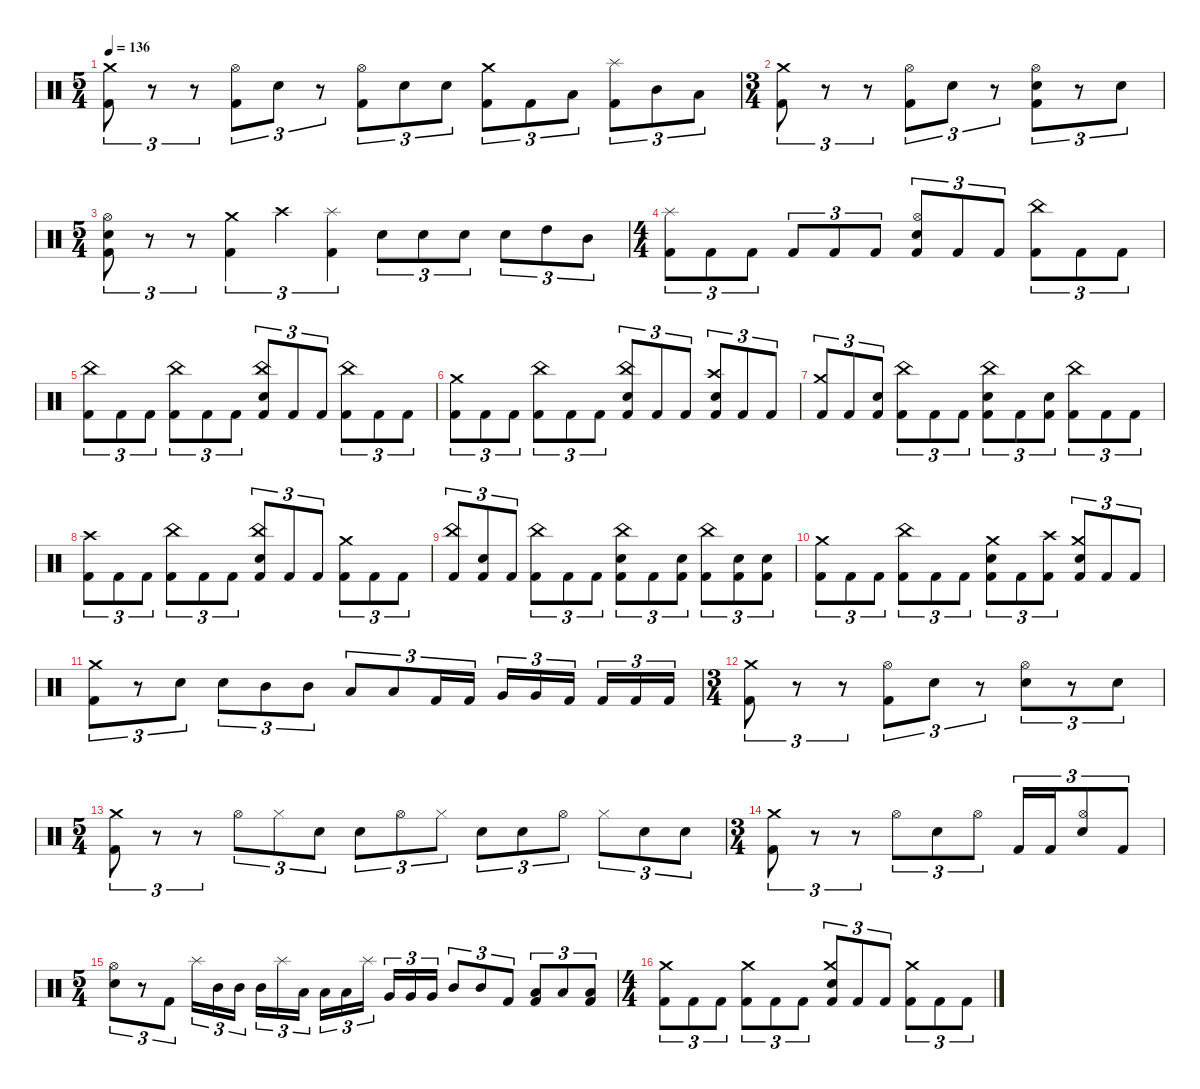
\defaultSystemsLayout 4
\hideDynamics
\bracketExtendMode nobrackets
\singleTrackTrackNamePolicy hidden
\multiTrackTrackNamePolicy hidden
\firstSystemTrackNameMode fullname
\firstSystemTrackNameOrientation horizontal
\otherSystemsTrackNameOrientation horizontal
\track ("Drums" "drm.") {instrument percussion}
\staff {score}
\articulation defaults
\ts (5 4)
\beaming (8 6 4)
\tempo 136
\clef neutral
\ks c
("Crash medium (hit)" "Kick (hit) 2").8{tu (3 2) dy f beam Down} r.8{tu (3 2) beam Down} r.8{tu (3 2) beam Down} ("Hi-Hat (open)" "Kick (hit) 2").8{tu (3 2) beam Down} "Snare (hit) 2".8{tu (3 2) beam Down} r.8{tu (3 2) beam Down} ("Hi-Hat (open)" "Kick (hit) 2").8{tu (3 2) beam Down} "Snare (hit) 2".8{tu (3 2) beam Down} "Snare (hit) 2".8{tu (3 2) beam Down} ("Crash medium (hit)" "Kick (hit) 2").8{tu (3 2) beam Down} "Kick (hit) 2".8{tu (3 2) beam Down} "Low Tom (hit)".8{tu (3 2) beam Down} ("Splash (hit)" "Kick (hit) 2").8{tu (3 2) beam Down} "Mid Tom (hit)".8{tu (3 2) beam Down} "Low Tom (hit)".8{tu (3 2) beam Down} |
\ts (3 4)
\beaming (8 6 4)
("Crash medium (hit)" "Kick (hit) 2").8{tu (3 2) beam Down} r.8{tu (3 2) beam Down} r.8{tu (3 2) beam Down} ("Hi-Hat (open)" "Kick (hit) 2").8{tu (3 2) beam Down} "Snare (hit) 2".8{tu (3 2) beam Down} r.8{tu (3 2) beam Down} ("Hi-Hat (open)" "Snare (hit) 2" "Kick (hit) 2").8{tu (3 2) beam Down} r.8{tu (3 2) beam Down} "Snare (hit) 2".8{tu (3 2) beam Down} |
\ts (5 4)
\beaming (8 6 4)
("Hi-Hat (open)" "Snare (hit) 2" "Kick (hit) 2").8{tu (3 2) beam Down} r.8{tu (3 2) beam Down} r.8{tu (3 2) beam Down} ("Crash medium (hit)" "Kick (hit) 2").4{tu (3 2) beam Down} "Crash high (hit)".4{tu (3 2) beam Down} ("Splash (hit)" "Kick (hit) 2").4{tu (3 2) beam Down} "Snare (hit) 2".8{tu (3 2) beam Down} "Snare (hit) 2".8{tu (3 2) beam Down} "Snare (hit) 2".8{tu (3 2) beam Down} "Snare (hit) 2".8{tu (3 2) beam Down} "High Tom (hit)".8{tu (3 2) beam Down} "Mid Tom (hit)".8{tu (3 2) beam Down} |
\ts (4 4)
\beaming (8 2 2 2 2)
("Splash (hit)" "Kick (hit) 2").8{tu (3 2) dy fff beam Down} "Kick (hit) 2".8{tu (3 2) dy f beam Down} "Kick (hit) 2".8{tu (3 2) beam Down} "Kick (hit) 2".8{tu (3 2) beam Up} "Kick (hit) 2".8{tu (3 2) beam Up} "Kick (hit) 2".8{tu (3 2) beam Up} ("Hi-Hat (open)" "Snare (hit) 2" "Kick (hit) 2").8{tu (3 2) beam Up} "Kick (hit) 2".8{tu (3 2) beam Up} "Kick (hit) 2".8{tu (3 2) beam Up} ("China (hit)" "Kick (hit) 2").8{tu (3 2) beam Down} "Kick (hit) 2".8{tu (3 2) beam Down} "Kick (hit) 2".8{tu (3 2) beam Down} |
("China (hit)" "Kick (hit) 2").8{tu (3 2) beam Down} "Kick (hit) 2".8{tu (3 2) beam Down} "Kick (hit) 2".8{tu (3 2) beam Down} ("China (hit)" "Kick (hit) 2").8{tu (3 2) beam Down} "Kick (hit) 2".8{tu (3 2) beam Down} "Kick (hit) 2".8{tu (3 2) beam Down} ("China (hit)" "Snare (hit) 2" "Kick (hit) 2").8{tu (3 2) beam Up} "Kick (hit) 2".8{tu (3 2) beam Up} "Kick (hit) 2".8{tu (3 2) beam Up} ("China (hit)" "Kick (hit) 2").8{tu (3 2) beam Down} "Kick (hit) 2".8{tu (3 2) beam Down} "Kick (hit) 2".8{tu (3 2) beam Down} |
("Crash medium (hit)" "Kick (hit) 2").8{tu (3 2) beam Down} "Kick (hit) 2".8{tu (3 2) beam Down} "Kick (hit) 2".8{tu (3 2) beam Down} ("China (hit)" "Kick (hit) 2").8{tu (3 2) beam Down} "Kick (hit) 2".8{tu (3 2) beam Down} "Kick (hit) 2".8{tu (3 2) beam Down} ("China (hit)" "Snare (hit) 2" "Kick (hit) 2").8{tu (3 2) beam Up} "Kick (hit) 2".8{tu (3 2) beam Up} "Kick (hit) 2".8{tu (3 2) beam Up} ("Crash high (hit)" "Snare (hit) 2" "Kick (hit) 2").8{tu (3 2) beam Up} "Kick (hit) 2".8{tu (3 2) beam Up} "Kick (hit) 2".8{tu (3 2) beam Up} |
("Crash medium (hit)" "Kick (hit) 2").8{tu (3 2) beam Up} "Kick (hit) 2".8{tu (3 2) beam Up} ("Snare (hit) 2" "Kick (hit) 2").8{tu (3 2) beam Up} ("China (hit)" "Kick (hit) 2").8{tu (3 2) beam Down} "Kick (hit) 2".8{tu (3 2) beam Down} "Kick (hit) 2".8{tu (3 2) beam Down} ("China (hit)" "Snare (hit) 2" "Kick (hit) 2").8{tu (3 2) beam Down} "Kick (hit) 2".8{tu (3 2) beam Down} ("Snare (hit) 2" "Kick (hit) 2").8{tu (3 2) beam Down} ("China (hit)" "Kick (hit) 2").8{tu (3 2) beam Down} "Kick (hit) 2".8{tu (3 2) beam Down} "Kick (hit) 2".8{tu (3 2) beam Down} |
("Crash high (hit)" "Kick (hit) 2").8{tu (3 2) beam Down} "Kick (hit) 2".8{tu (3 2) beam Down} "Kick (hit) 2".8{tu (3 2) beam Down} ("China (hit)" "Kick (hit) 2").8{tu (3 2) beam Down} "Kick (hit) 2".8{tu (3 2) beam Down} "Kick (hit) 2".8{tu (3 2) beam Down} ("China (hit)" "Snare (hit) 2" "Kick (hit) 2").8{tu (3 2) beam Up} "Kick (hit) 2".8{tu (3 2) beam Up} "Kick (hit) 2".8{tu (3 2) beam Up} ("Crash medium (hit)" "Kick (hit) 2").8{tu (3 2) beam Down} "Kick (hit) 2".8{tu (3 2) beam Down} "Kick (hit) 2".8{tu (3 2) beam Down} |
("China (hit)" "Kick (hit) 2").8{tu (3 2) beam Up} ("Snare (hit) 2" "Kick (hit) 2").8{tu (3 2) beam Up} "Kick (hit) 2".8{tu (3 2) beam Up} ("China (hit)" "Kick (hit) 2").8{tu (3 2) beam Down} "Kick (hit) 2".8{tu (3 2) beam Down} "Kick (hit) 2".8{tu (3 2) beam Down} ("China (hit)" "Snare (hit) 2" "Kick (hit) 2").8{tu (3 2) beam Down} "Kick (hit) 2".8{tu (3 2) beam Down} ("Snare (hit) 2" "Kick (hit) 2").8{tu (3 2) beam Down} ("China (hit)" "Kick (hit) 2").8{tu (3 2) beam Down} ("Snare (hit) 2" "Kick (hit) 2").8{tu (3 2) beam Down} ("Snare (hit) 2" "Kick (hit) 2").8{tu (3 2) beam Down} |
("Crash medium (hit)" "Kick (hit) 2").8{tu (3 2) beam Down} "Kick (hit) 2".8{tu (3 2) beam Down} "Kick (hit) 2".8{tu (3 2) beam Down} ("China (hit)" "Kick (hit) 2").8{tu (3 2) beam Down} "Kick (hit) 2".8{tu (3 2) beam Down} "Kick (hit) 2".8{tu (3 2) beam Down} ("Crash medium (hit)" "Snare (hit) 2" "Kick (hit) 2").8{tu (3 2) beam Down} "Kick (hit) 2".8{tu (3 2) beam Down} ("Crash high (hit)" "Kick (hit) 2").8{tu (3 2) beam Down} ("Crash medium (hit)" "Snare (hit) 2" "Kick (hit) 2").8{tu (3 2) beam Up} "Kick (hit) 2".8{tu (3 2) beam Up} "Kick (hit) 2".8{tu (3 2) beam Up} |
("Crash medium (hit)" "Kick (hit) 2").8{tu (3 2) beam Down} r.8{tu (3 2) beam Down} "Snare (hit) 2".8{tu (3 2) beam Down} "Snare (hit) 2".8{tu (3 2) beam Down} "Mid Tom (hit)".8{tu (3 2) beam Down} "Mid Tom (hit)".8{tu (3 2) beam Down} "Low Tom (hit)".8{tu (3 2) beam Up} "Low Tom (hit)".8{tu (3 2) beam Up} "Kick (hit) 2".16{tu (3 2) beam Up} "Kick (hit) 2".16{tu (3 2) beam Up} "Very Low Tom (hit)".16{tu (3 2) beam Up} "Very Low Tom (hit)".16{tu (3 2) beam Up} "Kick (hit) 2".16{tu (3 2) beam Up} "Kick (hit) 2".16{tu (3 2) beam Up} "Kick (hit) 2".16{tu (3 2) beam Up} "Kick (hit) 2".16{tu (3 2) beam Up} |
\ts (3 4)
\beaming (8 2 2 2 2)
("Crash medium (hit)" "Kick (hit) 2").8{tu (3 2) beam Down} r.8{tu (3 2) beam Down} r.8{tu (3 2) beam Down} ("Hi-Hat (open)" "Kick (hit) 2").8{tu (3 2) beam Down} "Snare (hit) 2".8{tu (3 2) beam Down} r.8{tu (3 2) beam Down} ("Hi-Hat (open)" "Snare (hit) 2").8{tu (3 2) beam Down} r.8{tu (3 2) beam Down} "Snare (hit) 2".8{tu (3 2) beam Down} |
\ts (5 4)
\beaming (8 2 2 2 4)
("Crash medium (hit)" "Kick (hit) 2").8{tu (3 2) beam Down} r.8{tu (3 2) beam Down} r.8{tu (3 2) beam Down} "Hi-Hat (open)".8{tu (3 2) beam Down} "Hi-Hat (closed)".8{tu (3 2) beam Down} "Snare (hit) 2".8{tu (3 2) beam Down} "Snare (hit) 2".8{tu (3 2) beam Down} "Hi-Hat (open)".8{tu (3 2) beam Down} "Hi-Hat (closed)".8{tu (3 2) beam Down} "Snare (hit) 2".8{tu (3 2) beam Down} "Snare (hit) 2".8{tu (3 2) beam Down} "Hi-Hat (open)".8{tu (3 2) beam Down} "Hi-Hat (closed)".8{tu (3 2) beam Down} "Snare (hit) 2".8{tu (3 2) beam Down} "Snare (hit) 2".8{tu (3 2) beam Down} |
\ts (3 4)
\beaming (8 2 2 2 2)
("Crash medium (hit)" "Kick (hit) 2").8{tu (3 2) beam Down} r.8{tu (3 2) beam Down} r.8{tu (3 2) beam Down} "Hi-Hat (open)".8{tu (3 2) beam Down} "Snare (hit) 2".8{tu (3 2) beam Down} "Hi-Hat (open)".8{tu (3 2) beam Down} "Kick (hit) 2".16{tu (3 2) beam Up} "Kick (hit) 2".16{tu (3 2) beam Up} ("Hi-Hat (open)" "Snare (hit) 2").8{tu (3 2) beam Up} "Kick (hit) 2".8{tu (3 2) beam Up} |
\ts (5 4)
\beaming (8 2 2 2 4)
("Hi-Hat (open)" "Snare (hit) 2").8{tu (3 2) beam Down} r.8{tu (3 2) beam Down} "Kick (hit) 2".8{tu (3 2) beam Down} "Splash (hit)".16{tu (3 2) beam Down} "Mid Tom (hit)".16{tu (3 2) beam Down} "Mid Tom (hit)".16{tu (3 2) beam Down} "Mid Tom (hit)".16{tu (3 2) beam Down} "Splash (hit)".16{tu (3 2) beam Down} "Low Tom (hit)".16{tu (3 2) beam Down} "Low Tom (hit)".16{tu (3 2) beam Down} "Low Tom (hit)".16{tu (3 2) beam Down} "Splash (hit)".16{tu (3 2) beam Down} "Very Low Tom (hit)".16{tu (3 2) beam Up} "Very Low Tom (hit)".16{tu (3 2) beam Up} "Very Low Tom (hit)".16{tu (3 2) beam Up} "Mid Tom (hit)".8{tu (3 2) beam Up} "Mid Tom (hit)".8{tu (3 2) beam Up} "Kick (hit) 2".8{tu (3 2) beam Up} ("Low Tom (hit)" "Kick (hit) 2").8{tu (3 2) beam Up} "Low Tom (hit)".8{tu (3 2) beam Up} ("Low Tom (hit)" "Kick (hit) 2").8{tu (3 2) beam Up} |
\ts (4 4)
\beaming (8 2 2 2 2)
("Crash medium (hit)" "Kick (hit) 2").8{tu (3 2) beam Down} "Kick (hit) 2".8{tu (3 2) beam Down} "Kick (hit) 2".8{tu (3 2) beam Down} ("Crash medium (hit)" "Kick (hit) 2").8{tu (3 2) beam Down} "Kick (hit) 2".8{tu (3 2) beam Down} "Kick (hit) 2".8{tu (3 2) beam Down} ("Crash medium (hit)" "Snare (hit) 2" "Kick (hit) 2").8{tu (3 2) beam Up} "Kick (hit) 2".8{tu (3 2) beam Up} "Kick (hit) 2".8{tu (3 2) beam Up} ("Crash medium (hit)" "Kick (hit) 2").8{tu (3 2) beam Down} "Kick (hit) 2".8{tu (3 2) beam Down} "Kick (hit) 2".8{tu (3 2) beam Down}
